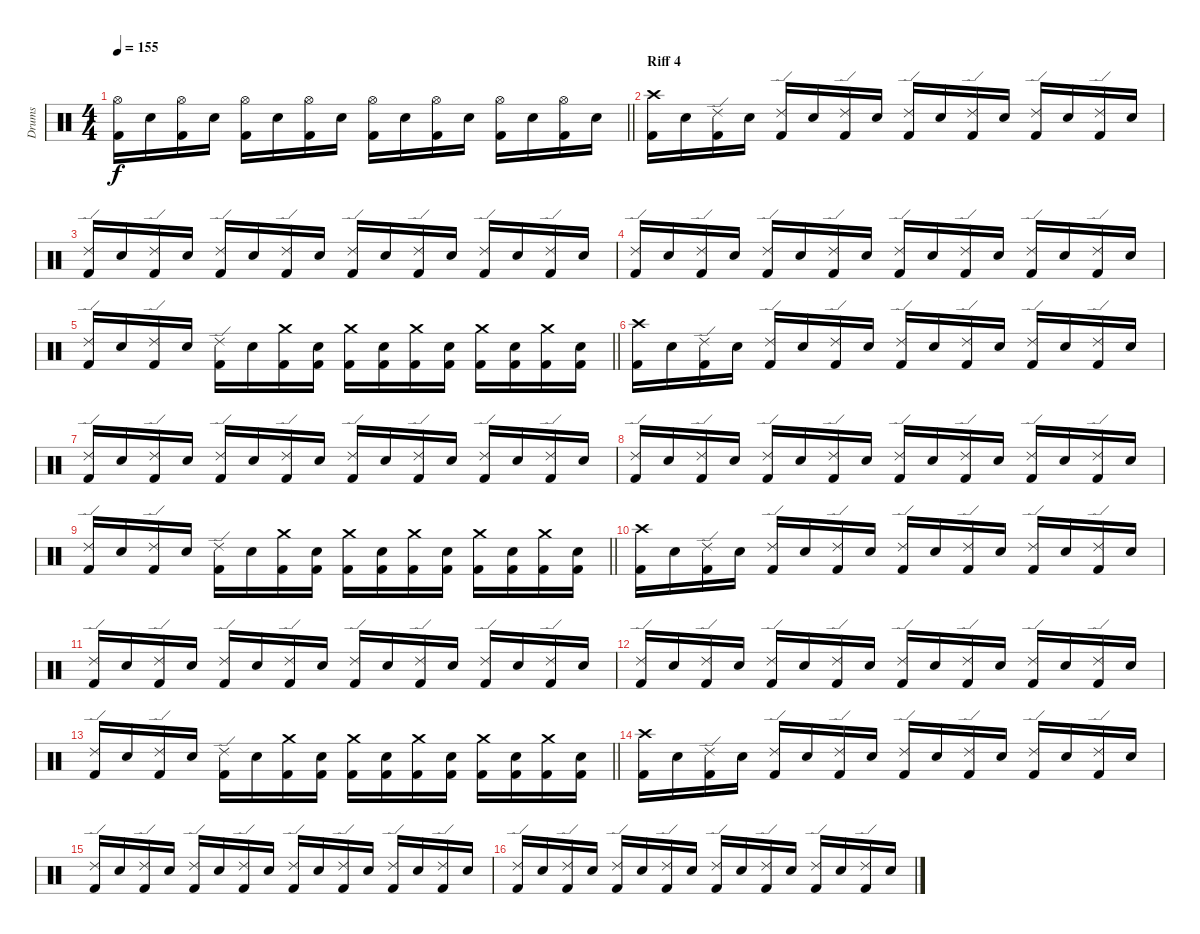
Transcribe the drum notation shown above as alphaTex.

\track ("Drums" "Drums") {instrument percussion}
\staff {score}
\articulation defaults
\ts (4 4)
\tempo 155
\clef neutral
\barLineRight lightlight
\ks c
("Hi-Hat (open)" "Kick (hit) 2").16{dy f} "Electric Snare (hit)".16 ("Hi-Hat (open)" "Kick (hit) 2").16 "Electric Snare (hit)".16 ("Hi-Hat (open)" "Kick (hit) 2").16 "Electric Snare (hit)".16 ("Hi-Hat (open)" "Kick (hit) 2").16 "Electric Snare (hit)".16 ("Hi-Hat (open)" "Kick (hit) 2").16 "Electric Snare (hit)".16 ("Hi-Hat (open)" "Kick (hit) 2").16 "Electric Snare (hit)".16 ("Hi-Hat (open)" "Kick (hit) 2").16 "Electric Snare (hit)".16 ("Hi-Hat (open)" "Kick (hit) 2").16 "Electric Snare (hit)".16 |
\section ("" "Riff 4")
("Crash high (hit)" "Kick (hit) 2").16 "Electric Snare (hit)".16 ("Ride (edge) 2" "Kick (hit) 2").16 "Electric Snare (hit)".16 ("Ride (edge) 2" "Kick (hit) 2").16 "Electric Snare (hit)".16 ("Ride (edge) 2" "Kick (hit) 2").16 "Electric Snare (hit)".16 ("Ride (edge) 2" "Kick (hit) 2").16 "Electric Snare (hit)".16 ("Ride (edge) 2" "Kick (hit) 2").16 "Electric Snare (hit)".16 ("Ride (edge) 2" "Kick (hit) 2").16 "Electric Snare (hit)".16 ("Ride (edge) 2" "Kick (hit) 2").16 "Electric Snare (hit)".16 |
("Ride (edge) 2" "Kick (hit) 2").16 "Electric Snare (hit)".16 ("Ride (edge) 2" "Kick (hit) 2").16 "Electric Snare (hit)".16 ("Ride (edge) 2" "Kick (hit) 2").16 "Electric Snare (hit)".16 ("Ride (edge) 2" "Kick (hit) 2").16 "Electric Snare (hit)".16 ("Ride (edge) 2" "Kick (hit) 2").16 "Electric Snare (hit)".16 ("Ride (edge) 2" "Kick (hit) 2").16 "Electric Snare (hit)".16 ("Ride (edge) 2" "Kick (hit) 2").16 "Electric Snare (hit)".16 ("Ride (edge) 2" "Kick (hit) 2").16 "Electric Snare (hit)".16 |
("Ride (edge) 2" "Kick (hit) 2").16 "Electric Snare (hit)".16 ("Ride (edge) 2" "Kick (hit) 2").16 "Electric Snare (hit)".16 ("Ride (edge) 2" "Kick (hit) 2").16 "Electric Snare (hit)".16 ("Ride (edge) 2" "Kick (hit) 2").16 "Electric Snare (hit)".16 ("Ride (edge) 2" "Kick (hit) 2").16 "Electric Snare (hit)".16 ("Ride (edge) 2" "Kick (hit) 2").16 "Electric Snare (hit)".16 ("Ride (edge) 2" "Kick (hit) 2").16 "Electric Snare (hit)".16 ("Ride (edge) 2" "Kick (hit) 2").16 "Electric Snare (hit)".16 |
\barLineRight lightlight
("Ride (edge) 2" "Kick (hit) 2").16 "Electric Snare (hit)".16 ("Ride (edge) 2" "Kick (hit) 2").16 "Electric Snare (hit)".16 ("Ride (edge) 2" "Kick (hit) 2").16 "Electric Snare (hit)".16 ("Crash medium (hit)" "Kick (hit) 2").16 ("Electric Snare (hit)" "Kick (hit) 2").16 ("Crash medium (hit)" "Kick (hit) 2").16 ("Electric Snare (hit)" "Kick (hit) 2").16 ("Crash medium (hit)" "Kick (hit) 2").16 ("Electric Snare (hit)" "Kick (hit) 2").16 ("Crash medium (hit)" "Kick (hit) 2").16 ("Electric Snare (hit)" "Kick (hit) 2").16 ("Crash medium (hit)" "Kick (hit) 2").16 ("Electric Snare (hit)" "Kick (hit) 2").16 |
("Crash high (hit)" "Kick (hit) 2").16 "Electric Snare (hit)".16 ("Ride (edge) 2" "Kick (hit) 2").16 "Electric Snare (hit)".16 ("Ride (edge) 2" "Kick (hit) 2").16 "Electric Snare (hit)".16 ("Ride (edge) 2" "Kick (hit) 2").16 "Electric Snare (hit)".16 ("Ride (edge) 2" "Kick (hit) 2").16 "Electric Snare (hit)".16 ("Ride (edge) 2" "Kick (hit) 2").16 "Electric Snare (hit)".16 ("Ride (edge) 2" "Kick (hit) 2").16 "Electric Snare (hit)".16 ("Ride (edge) 2" "Kick (hit) 2").16 "Electric Snare (hit)".16 |
("Ride (edge) 2" "Kick (hit) 2").16 "Electric Snare (hit)".16 ("Ride (edge) 2" "Kick (hit) 2").16 "Electric Snare (hit)".16 ("Ride (edge) 2" "Kick (hit) 2").16 "Electric Snare (hit)".16 ("Ride (edge) 2" "Kick (hit) 2").16 "Electric Snare (hit)".16 ("Ride (edge) 2" "Kick (hit) 2").16 "Electric Snare (hit)".16 ("Ride (edge) 2" "Kick (hit) 2").16 "Electric Snare (hit)".16 ("Ride (edge) 2" "Kick (hit) 2").16 "Electric Snare (hit)".16 ("Ride (edge) 2" "Kick (hit) 2").16 "Electric Snare (hit)".16 |
("Ride (edge) 2" "Kick (hit) 2").16 "Electric Snare (hit)".16 ("Ride (edge) 2" "Kick (hit) 2").16 "Electric Snare (hit)".16 ("Ride (edge) 2" "Kick (hit) 2").16 "Electric Snare (hit)".16 ("Ride (edge) 2" "Kick (hit) 2").16 "Electric Snare (hit)".16 ("Ride (edge) 2" "Kick (hit) 2").16 "Electric Snare (hit)".16 ("Ride (edge) 2" "Kick (hit) 2").16 "Electric Snare (hit)".16 ("Ride (edge) 2" "Kick (hit) 2").16 "Electric Snare (hit)".16 ("Ride (edge) 2" "Kick (hit) 2").16 "Electric Snare (hit)".16 |
\barLineRight lightlight
("Ride (edge) 2" "Kick (hit) 2").16 "Electric Snare (hit)".16 ("Ride (edge) 2" "Kick (hit) 2").16 "Electric Snare (hit)".16 ("Ride (edge) 2" "Kick (hit) 2").16 "Electric Snare (hit)".16 ("Crash medium (hit)" "Kick (hit) 2").16 ("Electric Snare (hit)" "Kick (hit) 2").16 ("Crash medium (hit)" "Kick (hit) 2").16 ("Electric Snare (hit)" "Kick (hit) 2").16 ("Crash medium (hit)" "Kick (hit) 2").16 ("Electric Snare (hit)" "Kick (hit) 2").16 ("Crash medium (hit)" "Kick (hit) 2").16 ("Electric Snare (hit)" "Kick (hit) 2").16 ("Crash medium (hit)" "Kick (hit) 2").16 ("Electric Snare (hit)" "Kick (hit) 2").16 |
("Crash high (hit)" "Kick (hit) 2").16 "Electric Snare (hit)".16 ("Ride (edge) 2" "Kick (hit) 2").16 "Electric Snare (hit)".16 ("Ride (edge) 2" "Kick (hit) 2").16 "Electric Snare (hit)".16 ("Ride (edge) 2" "Kick (hit) 2").16 "Electric Snare (hit)".16 ("Ride (edge) 2" "Kick (hit) 2").16 "Electric Snare (hit)".16 ("Ride (edge) 2" "Kick (hit) 2").16 "Electric Snare (hit)".16 ("Ride (edge) 2" "Kick (hit) 2").16 "Electric Snare (hit)".16 ("Ride (edge) 2" "Kick (hit) 2").16 "Electric Snare (hit)".16 |
("Ride (edge) 2" "Kick (hit) 2").16 "Electric Snare (hit)".16 ("Ride (edge) 2" "Kick (hit) 2").16 "Electric Snare (hit)".16 ("Ride (edge) 2" "Kick (hit) 2").16 "Electric Snare (hit)".16 ("Ride (edge) 2" "Kick (hit) 2").16 "Electric Snare (hit)".16 ("Ride (edge) 2" "Kick (hit) 2").16 "Electric Snare (hit)".16 ("Ride (edge) 2" "Kick (hit) 2").16 "Electric Snare (hit)".16 ("Ride (edge) 2" "Kick (hit) 2").16 "Electric Snare (hit)".16 ("Ride (edge) 2" "Kick (hit) 2").16 "Electric Snare (hit)".16 |
("Ride (edge) 2" "Kick (hit) 2").16 "Electric Snare (hit)".16 ("Ride (edge) 2" "Kick (hit) 2").16 "Electric Snare (hit)".16 ("Ride (edge) 2" "Kick (hit) 2").16 "Electric Snare (hit)".16 ("Ride (edge) 2" "Kick (hit) 2").16 "Electric Snare (hit)".16 ("Ride (edge) 2" "Kick (hit) 2").16 "Electric Snare (hit)".16 ("Ride (edge) 2" "Kick (hit) 2").16 "Electric Snare (hit)".16 ("Ride (edge) 2" "Kick (hit) 2").16 "Electric Snare (hit)".16 ("Ride (edge) 2" "Kick (hit) 2").16 "Electric Snare (hit)".16 |
\barLineRight lightlight
("Ride (edge) 2" "Kick (hit) 2").16 "Electric Snare (hit)".16 ("Ride (edge) 2" "Kick (hit) 2").16 "Electric Snare (hit)".16 ("Ride (edge) 2" "Kick (hit) 2").16 "Electric Snare (hit)".16 ("Crash medium (hit)" "Kick (hit) 2").16 ("Electric Snare (hit)" "Kick (hit) 2").16 ("Crash medium (hit)" "Kick (hit) 2").16 ("Electric Snare (hit)" "Kick (hit) 2").16 ("Crash medium (hit)" "Kick (hit) 2").16 ("Electric Snare (hit)" "Kick (hit) 2").16 ("Crash medium (hit)" "Kick (hit) 2").16 ("Electric Snare (hit)" "Kick (hit) 2").16 ("Crash medium (hit)" "Kick (hit) 2").16 ("Electric Snare (hit)" "Kick (hit) 2").16 |
("Crash high (hit)" "Kick (hit) 2").16 "Electric Snare (hit)".16 ("Ride (edge) 2" "Kick (hit) 2").16 "Electric Snare (hit)".16 ("Ride (edge) 2" "Kick (hit) 2").16 "Electric Snare (hit)".16 ("Ride (edge) 2" "Kick (hit) 2").16 "Electric Snare (hit)".16 ("Ride (edge) 2" "Kick (hit) 2").16 "Electric Snare (hit)".16 ("Ride (edge) 2" "Kick (hit) 2").16 "Electric Snare (hit)".16 ("Ride (edge) 2" "Kick (hit) 2").16 "Electric Snare (hit)".16 ("Ride (edge) 2" "Kick (hit) 2").16 "Electric Snare (hit)".16 |
("Ride (edge) 2" "Kick (hit) 2").16 "Electric Snare (hit)".16 ("Ride (edge) 2" "Kick (hit) 2").16 "Electric Snare (hit)".16 ("Ride (edge) 2" "Kick (hit) 2").16 "Electric Snare (hit)".16 ("Ride (edge) 2" "Kick (hit) 2").16 "Electric Snare (hit)".16 ("Ride (edge) 2" "Kick (hit) 2").16 "Electric Snare (hit)".16 ("Ride (edge) 2" "Kick (hit) 2").16 "Electric Snare (hit)".16 ("Ride (edge) 2" "Kick (hit) 2").16 "Electric Snare (hit)".16 ("Ride (edge) 2" "Kick (hit) 2").16 "Electric Snare (hit)".16 |
("Ride (edge) 2" "Kick (hit) 2").16 "Electric Snare (hit)".16 ("Ride (edge) 2" "Kick (hit) 2").16 "Electric Snare (hit)".16 ("Ride (edge) 2" "Kick (hit) 2").16 "Electric Snare (hit)".16 ("Ride (edge) 2" "Kick (hit) 2").16 "Electric Snare (hit)".16 ("Ride (edge) 2" "Kick (hit) 2").16 "Electric Snare (hit)".16 ("Ride (edge) 2" "Kick (hit) 2").16 "Electric Snare (hit)".16 ("Ride (edge) 2" "Kick (hit) 2").16 "Electric Snare (hit)".16 ("Ride (edge) 2" "Kick (hit) 2").16 "Electric Snare (hit)".16
